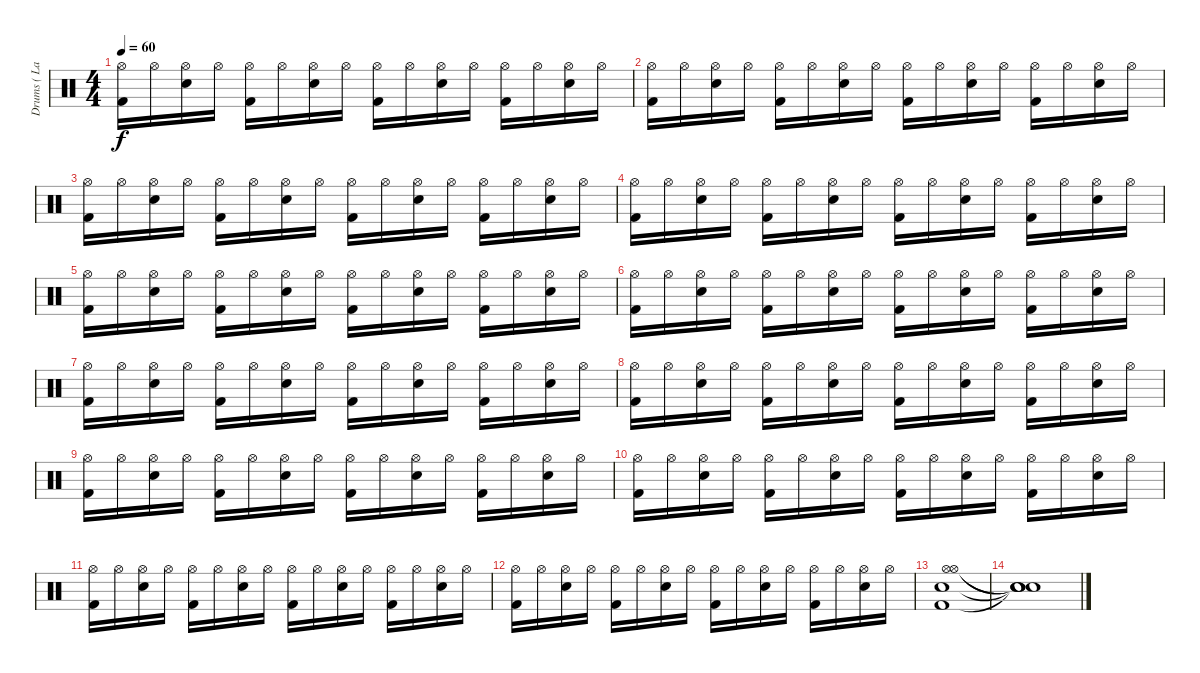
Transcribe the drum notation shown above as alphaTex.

\track ("Drums ( Lars )" "Drums ( La") {instrument percussion}
\staff {score}
\articulation defaults
\ts (4 4)
\tempo 60
\clef neutral
\ks c
("Kick (hit) 2" "Hi-Hat (open)").16{dy f} "Hi-Hat (open)".16 ("Snare (hit) 2" "Hi-Hat (open)").16 "Hi-Hat (open)".16 ("Kick (hit) 2" "Hi-Hat (open)").16 "Hi-Hat (open)".16 ("Snare (hit) 2" "Hi-Hat (open)").16 "Hi-Hat (open)".16 ("Kick (hit) 2" "Hi-Hat (open)").16 "Hi-Hat (open)".16 ("Snare (hit) 2" "Hi-Hat (open)").16 "Hi-Hat (open)".16 ("Kick (hit) 2" "Hi-Hat (open)").16 "Hi-Hat (open)".16 ("Snare (hit) 2" "Hi-Hat (open)").16 "Hi-Hat (open)".16 |
("Kick (hit) 2" "Hi-Hat (open)").16 "Hi-Hat (open)".16 ("Snare (hit) 2" "Hi-Hat (open)").16 "Hi-Hat (open)".16 ("Kick (hit) 2" "Hi-Hat (open)").16 "Hi-Hat (open)".16 ("Snare (hit) 2" "Hi-Hat (open)").16 "Hi-Hat (open)".16 ("Kick (hit) 2" "Hi-Hat (open)").16 "Hi-Hat (open)".16 ("Snare (hit) 2" "Hi-Hat (open)").16 "Hi-Hat (open)".16 ("Kick (hit) 2" "Hi-Hat (open)").16 "Hi-Hat (open)".16 ("Snare (hit) 2" "Hi-Hat (open)").16 "Hi-Hat (open)".16 |
("Kick (hit) 2" "Hi-Hat (open)").16 "Hi-Hat (open)".16 ("Snare (hit) 2" "Hi-Hat (open)").16 "Hi-Hat (open)".16 ("Kick (hit) 2" "Hi-Hat (open)").16 "Hi-Hat (open)".16 ("Snare (hit) 2" "Hi-Hat (open)").16 "Hi-Hat (open)".16 ("Kick (hit) 2" "Hi-Hat (open)").16 "Hi-Hat (open)".16 ("Snare (hit) 2" "Hi-Hat (open)").16 "Hi-Hat (open)".16 ("Kick (hit) 2" "Hi-Hat (open)").16 "Hi-Hat (open)".16 ("Snare (hit) 2" "Hi-Hat (open)").16 "Hi-Hat (open)".16 |
("Kick (hit) 2" "Hi-Hat (open)").16 "Hi-Hat (open)".16 ("Snare (hit) 2" "Hi-Hat (open)").16 "Hi-Hat (open)".16 ("Kick (hit) 2" "Hi-Hat (open)").16 "Hi-Hat (open)".16 ("Snare (hit) 2" "Hi-Hat (open)").16 "Hi-Hat (open)".16 ("Kick (hit) 2" "Hi-Hat (open)").16 "Hi-Hat (open)".16 ("Snare (hit) 2" "Hi-Hat (open)").16 "Hi-Hat (open)".16 ("Kick (hit) 2" "Hi-Hat (open)").16 "Hi-Hat (open)".16 ("Snare (hit) 2" "Hi-Hat (open)").16 "Hi-Hat (open)".16 |
("Kick (hit) 2" "Hi-Hat (open)").16 "Hi-Hat (open)".16 ("Snare (hit) 2" "Hi-Hat (open)").16 "Hi-Hat (open)".16 ("Kick (hit) 2" "Hi-Hat (open)").16 "Hi-Hat (open)".16 ("Snare (hit) 2" "Hi-Hat (open)").16 "Hi-Hat (open)".16 ("Kick (hit) 2" "Hi-Hat (open)").16 "Hi-Hat (open)".16 ("Snare (hit) 2" "Hi-Hat (open)").16 "Hi-Hat (open)".16 ("Kick (hit) 2" "Hi-Hat (open)").16 "Hi-Hat (open)".16 ("Snare (hit) 2" "Hi-Hat (open)").16 "Hi-Hat (open)".16 |
("Kick (hit) 2" "Hi-Hat (open)").16 "Hi-Hat (open)".16 ("Snare (hit) 2" "Hi-Hat (open)").16 "Hi-Hat (open)".16 ("Kick (hit) 2" "Hi-Hat (open)").16 "Hi-Hat (open)".16 ("Snare (hit) 2" "Hi-Hat (open)").16 "Hi-Hat (open)".16 ("Kick (hit) 2" "Hi-Hat (open)").16 "Hi-Hat (open)".16 ("Snare (hit) 2" "Hi-Hat (open)").16 "Hi-Hat (open)".16 ("Kick (hit) 2" "Hi-Hat (open)").16 "Hi-Hat (open)".16 ("Snare (hit) 2" "Hi-Hat (open)").16 "Hi-Hat (open)".16 |
("Kick (hit) 2" "Hi-Hat (open)").16 "Hi-Hat (open)".16 ("Snare (hit) 2" "Hi-Hat (open)").16 "Hi-Hat (open)".16 ("Kick (hit) 2" "Hi-Hat (open)").16 "Hi-Hat (open)".16 ("Snare (hit) 2" "Hi-Hat (open)").16 "Hi-Hat (open)".16 ("Kick (hit) 2" "Hi-Hat (open)").16 "Hi-Hat (open)".16 ("Snare (hit) 2" "Hi-Hat (open)").16 "Hi-Hat (open)".16 ("Kick (hit) 2" "Hi-Hat (open)").16 "Hi-Hat (open)".16 ("Snare (hit) 2" "Hi-Hat (open)").16 "Hi-Hat (open)".16 |
("Kick (hit) 2" "Hi-Hat (open)").16 "Hi-Hat (open)".16 ("Snare (hit) 2" "Hi-Hat (open)").16 "Hi-Hat (open)".16 ("Kick (hit) 2" "Hi-Hat (open)").16 "Hi-Hat (open)".16 ("Snare (hit) 2" "Hi-Hat (open)").16 "Hi-Hat (open)".16 ("Kick (hit) 2" "Hi-Hat (open)").16 "Hi-Hat (open)".16 ("Snare (hit) 2" "Hi-Hat (open)").16 "Hi-Hat (open)".16 ("Kick (hit) 2" "Hi-Hat (open)").16 "Hi-Hat (open)".16 ("Snare (hit) 2" "Hi-Hat (open)").16 "Hi-Hat (open)".16 |
("Kick (hit) 2" "Hi-Hat (open)").16 "Hi-Hat (open)".16 ("Snare (hit) 2" "Hi-Hat (open)").16 "Hi-Hat (open)".16 ("Kick (hit) 2" "Hi-Hat (open)").16 "Hi-Hat (open)".16 ("Snare (hit) 2" "Hi-Hat (open)").16 "Hi-Hat (open)".16 ("Kick (hit) 2" "Hi-Hat (open)").16 "Hi-Hat (open)".16 ("Snare (hit) 2" "Hi-Hat (open)").16 "Hi-Hat (open)".16 ("Kick (hit) 2" "Hi-Hat (open)").16 "Hi-Hat (open)".16 ("Snare (hit) 2" "Hi-Hat (open)").16 "Hi-Hat (open)".16 |
("Kick (hit) 2" "Hi-Hat (open)").16 "Hi-Hat (open)".16 ("Snare (hit) 2" "Hi-Hat (open)").16 "Hi-Hat (open)".16 ("Kick (hit) 2" "Hi-Hat (open)").16 "Hi-Hat (open)".16 ("Snare (hit) 2" "Hi-Hat (open)").16 "Hi-Hat (open)".16 ("Kick (hit) 2" "Hi-Hat (open)").16 "Hi-Hat (open)".16 ("Snare (hit) 2" "Hi-Hat (open)").16 "Hi-Hat (open)".16 ("Kick (hit) 2" "Hi-Hat (open)").16 "Hi-Hat (open)".16 ("Snare (hit) 2" "Hi-Hat (open)").16 "Hi-Hat (open)".16 |
("Kick (hit) 2" "Hi-Hat (open)").16 "Hi-Hat (open)".16 ("Snare (hit) 2" "Hi-Hat (open)").16 "Hi-Hat (open)".16 ("Kick (hit) 2" "Hi-Hat (open)").16 "Hi-Hat (open)".16 ("Snare (hit) 2" "Hi-Hat (open)").16 "Hi-Hat (open)".16 ("Kick (hit) 2" "Hi-Hat (open)").16 "Hi-Hat (open)".16 ("Snare (hit) 2" "Hi-Hat (open)").16 "Hi-Hat (open)".16 ("Kick (hit) 2" "Hi-Hat (open)").16 "Hi-Hat (open)".16 ("Snare (hit) 2" "Hi-Hat (open)").16 "Hi-Hat (open)".16 |
("Kick (hit) 2" "Hi-Hat (open)").16 "Hi-Hat (open)".16 ("Snare (hit) 2" "Hi-Hat (open)").16 "Hi-Hat (open)".16 ("Kick (hit) 2" "Hi-Hat (open)").16 "Hi-Hat (open)".16 ("Snare (hit) 2" "Hi-Hat (open)").16 "Hi-Hat (open)".16 ("Kick (hit) 2" "Hi-Hat (open)").16 "Hi-Hat (open)".16 ("Snare (hit) 2" "Hi-Hat (open)").16 "Hi-Hat (open)".16 ("Kick (hit) 2" "Hi-Hat (open)").16 "Hi-Hat (open)".16 ("Snare (hit) 2" "Hi-Hat (open)").16 "Hi-Hat (open)".16 |
("Kick (hit) 2" "Snare (hit) 2" "Hi-Hat (open)" "Hi-Hat (open)").1 |
("Snare (hit)"{t} "Snare (hit)"{t} "Snare (hit)"{t} "Snare (hit)"{t}).1
